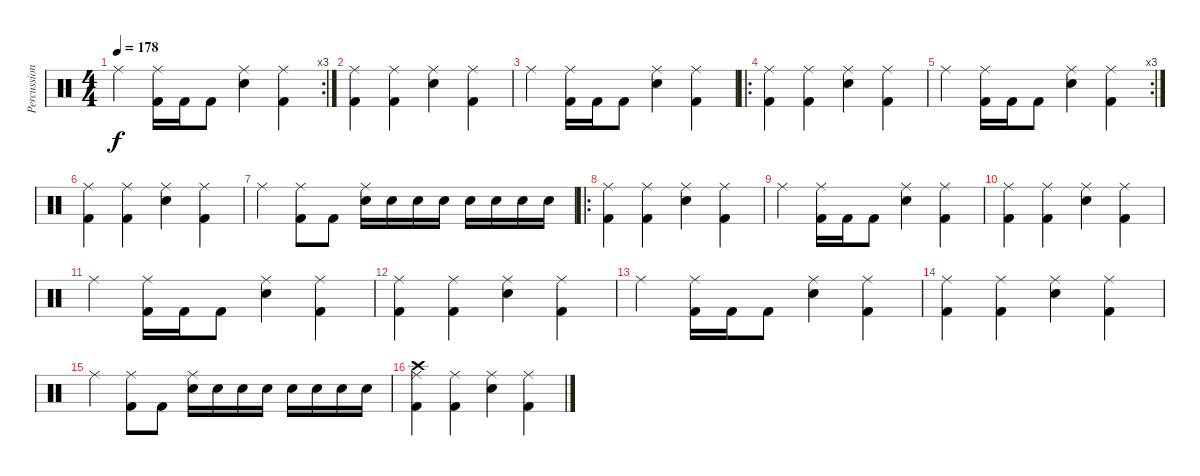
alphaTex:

\track ("Percussion" "Percussion") {instrument percussion}
\staff {score}
\articulation defaults
\rc 3
\ts (4 4)
\tempo 178
\clef neutral
\ks c "Ride (middle)".4{dy f}
("Kick (hit) 2" "Ride (middle)").16 "Kick (hit) 2".16 "Kick (hit) 2".8 ("Snare (hit) 2" "Ride (middle)").4 ("Kick (hit) 2" "Ride (middle)").4 |
("Kick (hit) 2" "Ride (middle)").4 ("Kick (hit) 2" "Ride (middle)").4 ("Snare (hit) 2" "Ride (middle)").4 ("Kick (hit) 2" "Ride (middle)").4 |
"Ride (middle)".4 ("Kick (hit) 2" "Ride (middle)").16 "Kick (hit) 2".16 "Kick (hit) 2".8 ("Snare (hit) 2" "Ride (middle)").4 ("Kick (hit) 2" "Ride (middle)").4 |
\ro
("Kick (hit) 2" "Ride (middle)").4 ("Kick (hit) 2" "Ride (middle)").4 ("Snare (hit) 2" "Ride (middle)").4 ("Kick (hit) 2" "Ride (middle)").4 |
\rc 3 "Ride (middle)".4
("Kick (hit) 2" "Ride (middle)").16 "Kick (hit) 2".16 "Kick (hit) 2".8 ("Snare (hit) 2" "Ride (middle)").4 ("Kick (hit) 2" "Ride (middle)").4 |
("Kick (hit) 2" "Ride (middle)").4 ("Kick (hit) 2" "Ride (middle)").4 ("Snare (hit) 2" "Ride (middle)").4 ("Kick (hit) 2" "Ride (middle)").4 |
"Ride (middle)".4 ("Kick (hit) 2" "Ride (middle)").8 "Kick (hit) 2".8 ("Snare (hit) 2" "Ride (middle)").16 "Snare (hit) 2".16 "Snare (hit) 2".16 "Snare (hit) 2".16 "Snare (hit) 2".16 "Snare (hit) 2".16 "Snare (hit) 2".16 "Snare (hit) 2".16 |
\ro
("Kick (hit) 2" "Ride (middle)").4 ("Kick (hit) 2" "Ride (middle)").4 ("Snare (hit) 2" "Ride (middle)").4 ("Kick (hit) 2" "Ride (middle)").4 |
"Ride (middle)".4 ("Kick (hit) 2" "Ride (middle)").16 "Kick (hit) 2".16 "Kick (hit) 2".8 ("Snare (hit) 2" "Ride (middle)").4 ("Kick (hit) 2" "Ride (middle)").4 |
("Kick (hit) 2" "Ride (middle)").4 ("Kick (hit) 2" "Ride (middle)").4 ("Snare (hit) 2" "Ride (middle)").4 ("Kick (hit) 2" "Ride (middle)").4 |
"Ride (middle)".4 ("Kick (hit) 2" "Ride (middle)").16 "Kick (hit) 2".16 "Kick (hit) 2".8 ("Snare (hit) 2" "Ride (middle)").4 ("Kick (hit) 2" "Ride (middle)").4 |
("Kick (hit) 2" "Ride (middle)").4 ("Kick (hit) 2" "Ride (middle)").4 ("Snare (hit) 2" "Ride (middle)").4 ("Kick (hit) 2" "Ride (middle)").4 |
"Ride (middle)".4 ("Kick (hit) 2" "Ride (middle)").16 "Kick (hit) 2".16 "Kick (hit) 2".8 ("Snare (hit) 2" "Ride (middle)").4 ("Kick (hit) 2" "Ride (middle)").4 |
("Kick (hit) 2" "Ride (middle)").4 ("Kick (hit) 2" "Ride (middle)").4 ("Snare (hit) 2" "Ride (middle)").4 ("Kick (hit) 2" "Ride (middle)").4 |
"Ride (middle)".4 ("Kick (hit) 2" "Ride (middle)").8 "Kick (hit) 2".8 ("Snare (hit) 2" "Ride (middle)").16 "Snare (hit) 2".16 "Snare (hit) 2".16 "Snare (hit) 2".16 "Snare (hit) 2".16 "Snare (hit) 2".16 "Snare (hit) 2".16 "Snare (hit) 2".16 |
("Crash high (hit)" "Kick (hit) 2" "Ride (middle)").4 ("Kick (hit) 2" "Ride (middle)").4 ("Snare (hit) 2" "Ride (middle)").4 ("Kick (hit) 2" "Ride (middle)").4
